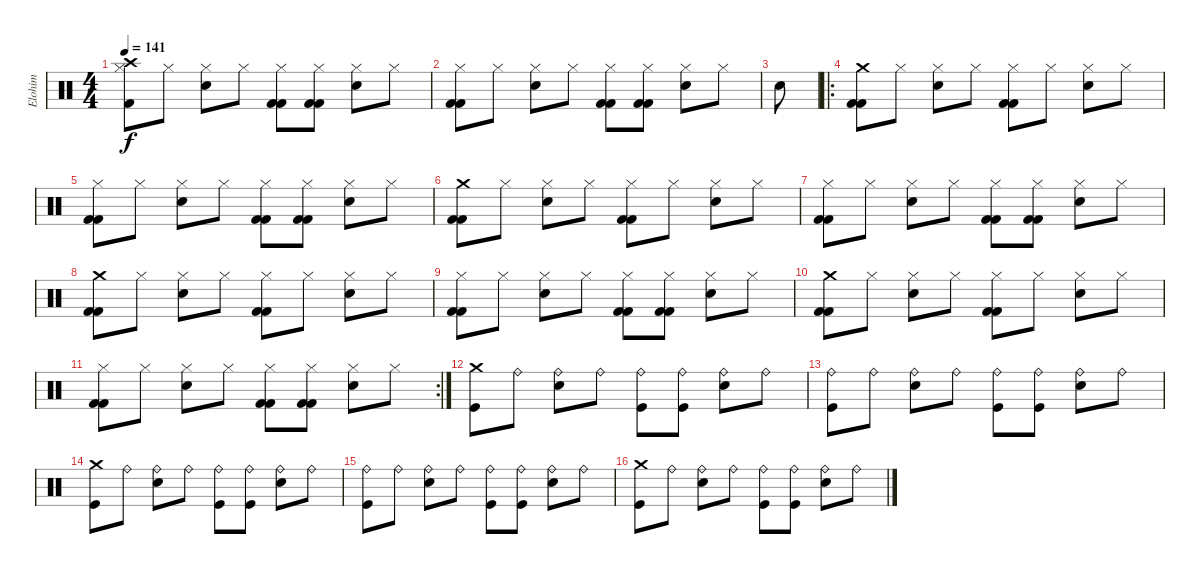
\track ("Elohim" "Elohim") {instrument percussion}
\staff {score}
\articulation defaults
\ts (4 4)
\tempo 141
\clef neutral
\ks c
("Hi-Hat (closed)" "Kick (hit) 2" "Crash high (hit)").8{dy f} "Hi-Hat (closed)".8 ("Hi-Hat (closed)" "Snare (hit) 2").8 "Hi-Hat (closed)".8 ("Hi-Hat (closed)" "Kick (hit) 2" "Kick (hit) 2").8 ("Hi-Hat (closed)" "Kick (hit) 2" "Kick (hit) 2").8 ("Hi-Hat (closed)" "Snare (hit) 2").8 "Hi-Hat (closed)".8 |
("Hi-Hat (closed)" "Kick (hit) 2" "Kick (hit) 2").8 "Hi-Hat (closed)".8 ("Hi-Hat (closed)" "Snare (hit) 2").8 "Hi-Hat (closed)".8 ("Hi-Hat (closed)" "Kick (hit) 2" "Kick (hit) 2").8 ("Hi-Hat (closed)" "Kick (hit) 2" "Kick (hit) 2").8 ("Hi-Hat (closed)" "Snare (hit) 2").8 "Hi-Hat (closed)".8 |
"Electric Snare (hit)".8 |
\ro
("Crash medium (hit)" "Kick (hit) 2" "Kick (hit) 2").8 "Hi-Hat (closed)".8 ("Hi-Hat (closed)" "Snare (hit) 2").8 "Hi-Hat (closed)".8 ("Hi-Hat (closed)" "Kick (hit) 2" "Kick (hit) 2").8 "Hi-Hat (closed)".8 ("Hi-Hat (closed)" "Snare (hit) 2").8 "Hi-Hat (closed)".8 |
("Hi-Hat (closed)" "Kick (hit) 2" "Kick (hit) 2").8 "Hi-Hat (closed)".8 ("Hi-Hat (closed)" "Snare (hit) 2").8 "Hi-Hat (closed)".8 ("Hi-Hat (closed)" "Kick (hit) 2" "Kick (hit) 2").8 ("Hi-Hat (closed)" "Kick (hit) 2" "Kick (hit) 2").8 ("Hi-Hat (closed)" "Snare (hit) 2").8 "Hi-Hat (closed)".8 |
("Crash medium (hit)" "Kick (hit) 2" "Kick (hit) 2").8 "Hi-Hat (closed)".8 ("Hi-Hat (closed)" "Snare (hit) 2").8 "Hi-Hat (closed)".8 ("Hi-Hat (closed)" "Kick (hit) 2" "Kick (hit) 2").8 "Hi-Hat (closed)".8 ("Hi-Hat (closed)" "Snare (hit) 2").8 "Hi-Hat (closed)".8 |
("Hi-Hat (closed)" "Kick (hit) 2" "Kick (hit) 2").8 "Hi-Hat (closed)".8 ("Hi-Hat (closed)" "Snare (hit) 2").8 "Hi-Hat (closed)".8 ("Hi-Hat (closed)" "Kick (hit) 2" "Kick (hit) 2").8 ("Hi-Hat (closed)" "Kick (hit) 2" "Kick (hit) 2").8 ("Hi-Hat (closed)" "Snare (hit) 2").8 "Hi-Hat (closed)".8 |
("Crash medium (hit)" "Kick (hit) 2" "Kick (hit) 2").8 "Hi-Hat (closed)".8 ("Hi-Hat (closed)" "Snare (hit) 2").8 "Hi-Hat (closed)".8 ("Hi-Hat (closed)" "Kick (hit) 2" "Kick (hit) 2").8 "Hi-Hat (closed)".8 ("Hi-Hat (closed)" "Snare (hit) 2").8 "Hi-Hat (closed)".8 |
("Hi-Hat (closed)" "Kick (hit) 2" "Kick (hit) 2").8 "Hi-Hat (closed)".8 ("Hi-Hat (closed)" "Snare (hit) 2").8 "Hi-Hat (closed)".8 ("Hi-Hat (closed)" "Kick (hit) 2" "Kick (hit) 2").8 ("Hi-Hat (closed)" "Kick (hit) 2" "Kick (hit) 2").8 ("Hi-Hat (closed)" "Snare (hit) 2").8 "Hi-Hat (closed)".8 |
("Crash medium (hit)" "Kick (hit) 2" "Kick (hit) 2").8 "Hi-Hat (closed)".8 ("Hi-Hat (closed)" "Snare (hit) 2").8 "Hi-Hat (closed)".8 ("Hi-Hat (closed)" "Kick (hit) 2" "Kick (hit) 2").8 "Hi-Hat (closed)".8 ("Hi-Hat (closed)" "Snare (hit) 2").8 "Hi-Hat (closed)".8 |
\rc 2
("Hi-Hat (closed)" "Kick (hit) 2" "Kick (hit) 2").8 "Hi-Hat (closed)".8 ("Hi-Hat (closed)" "Snare (hit) 2").8 "Hi-Hat (closed)".8 ("Hi-Hat (closed)" "Kick (hit) 2" "Kick (hit) 2").8 ("Hi-Hat (closed)" "Kick (hit) 2" "Kick (hit) 2").8 ("Hi-Hat (closed)" "Snare (hit) 2").8 "Hi-Hat (closed)".8 |
("Crash medium (hit)" "Kick (hit)").8 "Ride (bell)".8 ("Ride (bell)" "Electric Snare (hit)").8 "Ride (bell)".8 ("Ride (bell)" "Kick (hit)").8 ("Ride (bell)" "Kick (hit)").8 ("Ride (bell)" "Electric Snare (hit)").8 "Ride (bell)".8 |
("Ride (bell)" "Kick (hit)").8 "Ride (bell)".8 ("Ride (bell)" "Electric Snare (hit)").8 "Ride (bell)".8 ("Ride (bell)" "Kick (hit)").8 ("Ride (bell)" "Kick (hit)").8 ("Ride (bell)" "Electric Snare (hit)").8 "Ride (bell)".8 |
("Crash medium (hit)" "Kick (hit)").8 "Ride (bell)".8 ("Ride (bell)" "Electric Snare (hit)").8 "Ride (bell)".8 ("Ride (bell)" "Kick (hit)").8 ("Ride (bell)" "Kick (hit)").8 ("Ride (bell)" "Electric Snare (hit)").8 "Ride (bell)".8 |
("Ride (bell)" "Kick (hit)").8 "Ride (bell)".8 ("Ride (bell)" "Electric Snare (hit)").8 "Ride (bell)".8 ("Ride (bell)" "Kick (hit)").8 ("Ride (bell)" "Kick (hit)").8 ("Ride (bell)" "Electric Snare (hit)").8 "Ride (bell)".8 |
("Crash medium (hit)" "Kick (hit)").8 "Ride (bell)".8 ("Ride (bell)" "Electric Snare (hit)").8 "Ride (bell)".8 ("Ride (bell)" "Kick (hit)").8 ("Ride (bell)" "Kick (hit)").8 ("Ride (bell)" "Electric Snare (hit)").8 "Ride (bell)".8
